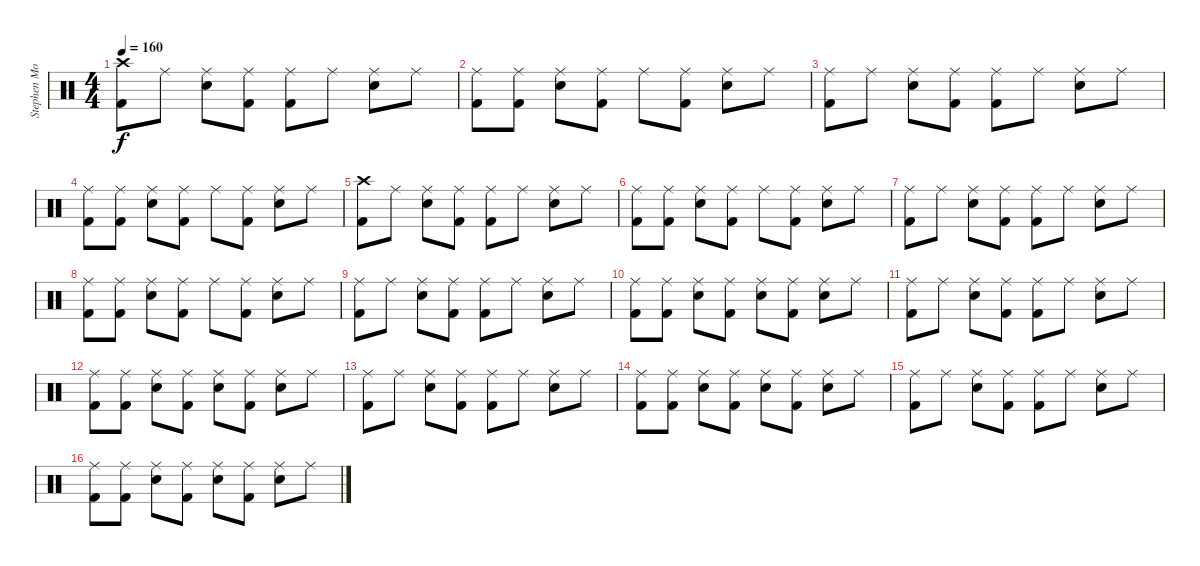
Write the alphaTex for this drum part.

\track ("Stephen Morris - Drums" "Stephen Mo") {instrument percussion}
\staff {score}
\articulation defaults
\ts (4 4)
\tempo 160
\clef neutral
\ks c
("Crash high (hit)" "Kick (hit) 2").8{dy f} "Ride (middle)".8 ("Ride (middle)" "Snare (hit) 2").8 ("Ride (middle)" "Kick (hit) 2").8 ("Ride (middle)" "Kick (hit) 2").8 "Ride (middle)".8 ("Ride (middle)" "Snare (hit) 2").8 "Ride (middle)".8 |
("Ride (middle)" "Kick (hit) 2").8 ("Ride (middle)" "Kick (hit) 2").8 ("Ride (middle)" "Snare (hit) 2").8 ("Ride (middle)" "Kick (hit) 2").8 "Ride (middle)".8 ("Ride (middle)" "Kick (hit) 2").8 ("Ride (middle)" "Snare (hit) 2").8 "Ride (middle)".8 |
("Ride (middle)" "Kick (hit) 2").8 "Ride (middle)".8 ("Ride (middle)" "Snare (hit) 2").8 ("Ride (middle)" "Kick (hit) 2").8 ("Ride (middle)" "Kick (hit) 2").8 "Ride (middle)".8 ("Ride (middle)" "Snare (hit) 2").8 "Ride (middle)".8 |
("Ride (middle)" "Kick (hit) 2").8 ("Ride (middle)" "Kick (hit) 2").8 ("Ride (middle)" "Snare (hit) 2").8 ("Ride (middle)" "Kick (hit) 2").8 "Ride (middle)".8 ("Ride (middle)" "Kick (hit) 2").8 ("Ride (middle)" "Snare (hit) 2").8 "Ride (middle)".8 |
("Crash high (hit)" "Kick (hit) 2").8 "Ride (middle)".8 ("Ride (middle)" "Snare (hit) 2").8 ("Ride (middle)" "Kick (hit) 2").8 ("Ride (middle)" "Kick (hit) 2").8 "Ride (middle)".8 ("Ride (middle)" "Snare (hit) 2").8 "Ride (middle)".8 |
("Ride (middle)" "Kick (hit) 2").8 ("Ride (middle)" "Kick (hit) 2").8 ("Ride (middle)" "Snare (hit) 2").8 ("Ride (middle)" "Kick (hit) 2").8 "Ride (middle)".8 ("Ride (middle)" "Kick (hit) 2").8 ("Ride (middle)" "Snare (hit) 2").8 "Ride (middle)".8 |
("Ride (middle)" "Kick (hit) 2").8 "Ride (middle)".8 ("Ride (middle)" "Snare (hit) 2").8 ("Ride (middle)" "Kick (hit) 2").8 ("Ride (middle)" "Kick (hit) 2").8 "Ride (middle)".8 ("Ride (middle)" "Snare (hit) 2").8 "Ride (middle)".8 |
("Ride (middle)" "Kick (hit) 2").8 ("Ride (middle)" "Kick (hit) 2").8 ("Ride (middle)" "Snare (hit) 2").8 ("Ride (middle)" "Kick (hit) 2").8 "Ride (middle)".8 ("Ride (middle)" "Kick (hit) 2").8 ("Ride (middle)" "Snare (hit) 2").8 "Ride (middle)".8 |
("Ride (middle)" "Kick (hit) 2").8 "Ride (middle)".8 ("Ride (middle)" "Snare (hit) 2").8 ("Ride (middle)" "Kick (hit) 2").8 ("Ride (middle)" "Kick (hit) 2").8 "Ride (middle)".8 ("Ride (middle)" "Snare (hit) 2").8 "Ride (middle)".8 |
("Ride (middle)" "Kick (hit) 2").8 ("Ride (middle)" "Kick (hit) 2").8 ("Ride (middle)" "Snare (hit) 2").8 ("Ride (middle)" "Kick (hit) 2").8 ("Ride (middle)" "Snare (hit) 2").8 ("Ride (middle)" "Kick (hit) 2").8 ("Ride (middle)" "Snare (hit) 2").8 "Ride (middle)".8 |
("Ride (middle)" "Kick (hit) 2").8 "Ride (middle)".8 ("Ride (middle)" "Snare (hit) 2").8 ("Ride (middle)" "Kick (hit) 2").8 ("Ride (middle)" "Kick (hit) 2").8 "Ride (middle)".8 ("Ride (middle)" "Snare (hit) 2").8 "Ride (middle)".8 |
("Ride (middle)" "Kick (hit) 2").8 ("Ride (middle)" "Kick (hit) 2").8 ("Ride (middle)" "Snare (hit) 2").8 ("Ride (middle)" "Kick (hit) 2").8 ("Ride (middle)" "Snare (hit) 2").8 ("Ride (middle)" "Kick (hit) 2").8 ("Ride (middle)" "Snare (hit) 2").8 "Ride (middle)".8 |
("Ride (middle)" "Kick (hit) 2").8 "Ride (middle)".8 ("Ride (middle)" "Snare (hit) 2").8 ("Ride (middle)" "Kick (hit) 2").8 ("Ride (middle)" "Kick (hit) 2").8 "Ride (middle)".8 ("Ride (middle)" "Snare (hit) 2").8 "Ride (middle)".8 |
("Ride (middle)" "Kick (hit) 2").8 ("Ride (middle)" "Kick (hit) 2").8 ("Ride (middle)" "Snare (hit) 2").8 ("Ride (middle)" "Kick (hit) 2").8 ("Ride (middle)" "Snare (hit) 2").8 ("Ride (middle)" "Kick (hit) 2").8 ("Ride (middle)" "Snare (hit) 2").8 "Ride (middle)".8 |
("Ride (middle)" "Kick (hit) 2").8 "Ride (middle)".8 ("Ride (middle)" "Snare (hit) 2").8 ("Ride (middle)" "Kick (hit) 2").8 ("Ride (middle)" "Kick (hit) 2").8 "Ride (middle)".8 ("Ride (middle)" "Snare (hit) 2").8 "Ride (middle)".8 |
("Ride (middle)" "Kick (hit) 2").8 ("Ride (middle)" "Kick (hit) 2").8 ("Ride (middle)" "Snare (hit) 2").8 ("Ride (middle)" "Kick (hit) 2").8 ("Ride (middle)" "Snare (hit) 2").8 ("Ride (middle)" "Kick (hit) 2").8 ("Ride (middle)" "Snare (hit) 2").8 "Ride (middle)".8
